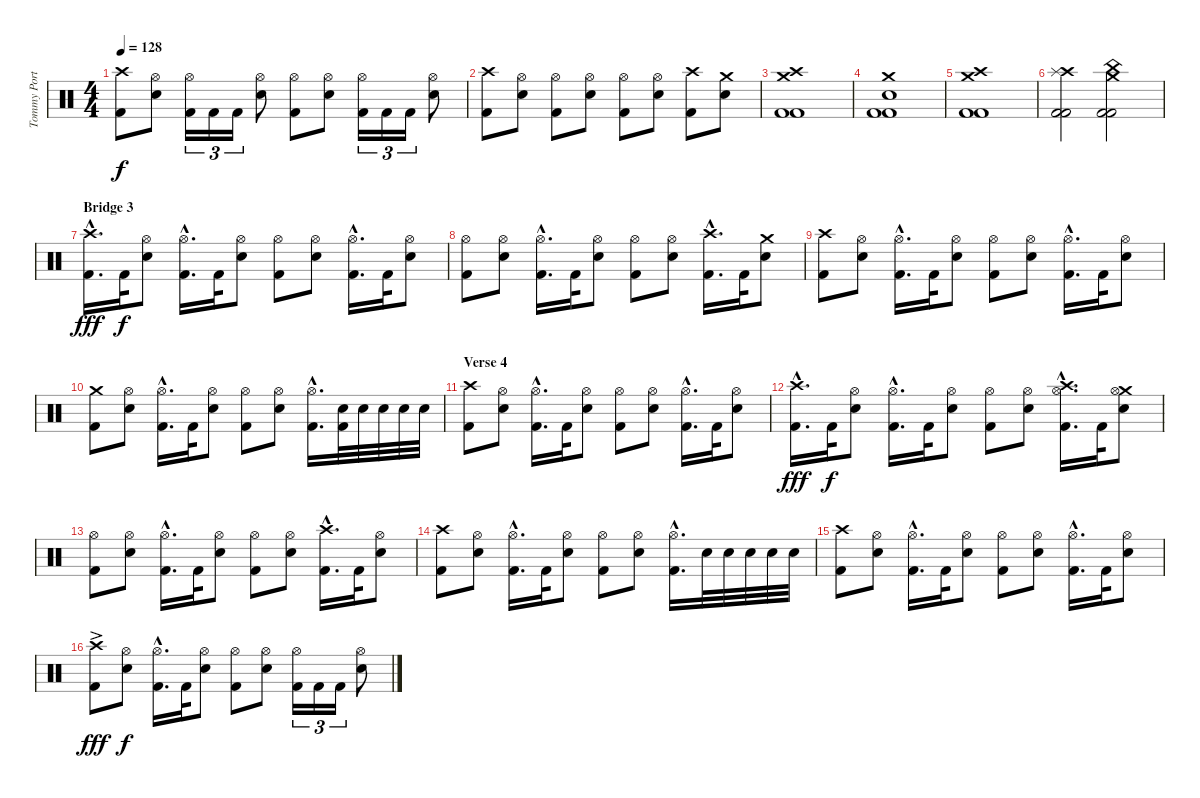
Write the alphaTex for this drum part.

\track ("Tommy Portimo" "Tommy Port") {instrument percussion}
\staff {score}
\articulation defaults
\ts (4 4)
\tempo 128
\clef neutral
\ks c
("Crash high (hit)" "Kick (hit) 2").8{dy f} ("Hi-Hat (open)" "Snare (hit) 2").8 ("Hi-Hat (open)" "Kick (hit) 2").16{tu (3 2)} "Kick (hit) 2".16{tu (3 2)} "Kick (hit) 2".16{tu (3 2)} ("Hi-Hat (open)" "Snare (hit) 2").8 ("Hi-Hat (open)" "Kick (hit) 2").8 ("Hi-Hat (open)" "Snare (hit) 2").8 ("Hi-Hat (open)" "Kick (hit) 2").16{tu (3 2)} "Kick (hit) 2".16{tu (3 2)} "Kick (hit) 2".16{tu (3 2)} ("Hi-Hat (open)" "Snare (hit) 2").8 |
("Crash high (hit)" "Kick (hit) 2").8 ("Hi-Hat (open)" "Snare (hit) 2").8 ("Hi-Hat (open)" "Kick (hit) 2").8 ("Hi-Hat (open)" "Snare (hit) 2").8 ("Hi-Hat (open)" "Kick (hit) 2").8 ("Hi-Hat (open)" "Snare (hit) 2").8 ("Crash high (hit)" "Kick (hit) 2").8 ("Crash medium (hit)" "Snare (hit) 2").8 |
("Crash high (hit)" "Crash medium (hit)" "Kick (hit) 2" "Kick (hit) 2").1 |
("Crash medium (hit)" "Snare (hit) 2" "Kick (hit) 2" "Kick (hit) 2").1 |
("Crash medium (hit)" "Crash high (hit)" "Kick (hit) 2" "Kick (hit) 2").1 |
("Crash high (hit)" "Splash (hit)" "Kick (hit) 2" "Kick (hit) 2").2 ("Crash medium (hit)" "China (hit)" "Kick (hit) 2" "Kick (hit) 2").2 |
\section ("" "Bridge 3")
("Crash high (hit)"{hac} "Kick (hit) 2"{hac}).16{d dy fff} "Kick (hit) 2".32{dy f} ("Hi-Hat (open)" "Snare (hit) 2").8 ("Hi-Hat (open)"{hac} "Kick (hit) 2"{hac}).16{d} "Kick (hit) 2".32 ("Hi-Hat (open)" "Snare (hit) 2").8 ("Hi-Hat (open)" "Kick (hit) 2").8 ("Hi-Hat (open)" "Snare (hit) 2").8 ("Hi-Hat (open)"{hac} "Kick (hit) 2"{hac}).16{d} "Kick (hit) 2".32 ("Hi-Hat (open)" "Snare (hit) 2").8 |
("Hi-Hat (open)" "Kick (hit) 2").8 ("Hi-Hat (open)" "Snare (hit) 2").8 ("Hi-Hat (open)"{hac} "Kick (hit) 2"{hac}).16{d} "Kick (hit) 2".32 ("Hi-Hat (open)" "Snare (hit) 2").8 ("Hi-Hat (open)" "Kick (hit) 2").8 ("Hi-Hat (open)" "Snare (hit) 2").8 ("Crash high (hit)"{hac} "Kick (hit) 2"{hac}).16{d} "Kick (hit) 2".32 ("Crash medium (hit)" "Snare (hit) 2").8 |
("Crash high (hit)" "Kick (hit) 2").8 ("Hi-Hat (open)" "Snare (hit) 2").8 ("Hi-Hat (open)"{hac} "Kick (hit) 2"{hac}).16{d} "Kick (hit) 2".32 ("Hi-Hat (open)" "Snare (hit) 2").8 ("Hi-Hat (open)" "Kick (hit) 2").8 ("Hi-Hat (open)" "Snare (hit) 2").8 ("Hi-Hat (open)"{hac} "Kick (hit) 2"{hac}).16{d} "Kick (hit) 2".32 ("Hi-Hat (open)" "Snare (hit) 2").8 |
("Crash medium (hit)" "Kick (hit) 2").8 ("Hi-Hat (open)" "Snare (hit) 2").8 ("Hi-Hat (open)"{hac} "Kick (hit) 2"{hac}).16{d} "Kick (hit) 2".32 ("Hi-Hat (open)" "Snare (hit) 2").8 ("Hi-Hat (open)" "Kick (hit) 2").8 ("Hi-Hat (open)" "Snare (hit) 2").8 ("Hi-Hat (open)"{hac} "Kick (hit) 2"{hac}).16{d} ("Snare (hit) 2" "Kick (hit) 2").32 "Snare (hit) 2".32 "Snare (hit) 2".32 "Snare (hit) 2".32 "Snare (hit) 2".32 |
\section ("" "Verse 4")
("Crash high (hit)" "Kick (hit) 2").8 ("Hi-Hat (open)" "Snare (hit) 2").8 ("Hi-Hat (open)"{hac} "Kick (hit) 2"{hac}).16{d} "Kick (hit) 2".32 ("Hi-Hat (open)" "Snare (hit) 2").8 ("Hi-Hat (open)" "Kick (hit) 2").8 ("Hi-Hat (open)" "Snare (hit) 2").8 ("Hi-Hat (open)"{hac} "Kick (hit) 2"{hac}).16{d} "Kick (hit) 2".32 ("Hi-Hat (open)" "Snare (hit) 2").8 |
("Crash high (hit)"{hac} "Kick (hit) 2"{hac}).16{d dy fff} "Kick (hit) 2".32{dy f} ("Hi-Hat (open)" "Snare (hit) 2").8 ("Hi-Hat (open)"{hac} "Kick (hit) 2"{hac}).16{d} "Kick (hit) 2".32 ("Hi-Hat (open)" "Snare (hit) 2").8 ("Hi-Hat (open)" "Kick (hit) 2").8 ("Hi-Hat (open)" "Snare (hit) 2").8 ("Crash high (hit)"{hac} "Hi-Hat (open)"{hac} "Kick (hit) 2"{hac}).16{d} "Kick (hit) 2".32 ("Crash medium (hit)" "Hi-Hat (open)" "Snare (hit) 2").8 |
("Hi-Hat (open)" "Kick (hit) 2").8 ("Hi-Hat (open)" "Snare (hit) 2").8 ("Hi-Hat (open)"{hac} "Kick (hit) 2"{hac}).16{d} "Kick (hit) 2".32 ("Hi-Hat (open)" "Snare (hit) 2").8 ("Hi-Hat (open)" "Kick (hit) 2").8 ("Hi-Hat (open)" "Snare (hit) 2").8 ("Crash high (hit)"{hac} "Kick (hit) 2"{hac}).16{d} "Kick (hit) 2".32 ("Hi-Hat (open)" "Snare (hit) 2").8 |
("Crash high (hit)" "Kick (hit) 2").8 ("Hi-Hat (open)" "Snare (hit) 2").8 ("Hi-Hat (open)"{hac} "Kick (hit) 2"{hac}).16{d} "Kick (hit) 2".32 ("Hi-Hat (open)" "Snare (hit) 2").8 ("Hi-Hat (open)" "Kick (hit) 2").8 ("Hi-Hat (open)" "Snare (hit) 2").8 ("Hi-Hat (open)"{hac} "Kick (hit) 2"{hac}).16{d} "Snare (hit) 2".32 "Snare (hit) 2".32 "Snare (hit) 2".32 "Snare (hit) 2".32 "Snare (hit) 2".32 |
("Crash high (hit)" "Kick (hit) 2").8 ("Hi-Hat (open)" "Snare (hit) 2").8 ("Hi-Hat (open)"{hac} "Kick (hit) 2"{hac}).16{d} "Kick (hit) 2".32 ("Hi-Hat (open)" "Snare (hit) 2").8 ("Hi-Hat (open)" "Kick (hit) 2").8 ("Hi-Hat (open)" "Snare (hit) 2").8 ("Hi-Hat (open)"{hac} "Kick (hit) 2"{hac}).16{d} "Kick (hit) 2".32 ("Hi-Hat (open)" "Snare (hit) 2").8 |
("Crash high (hit)"{ac} "Kick (hit) 2").8{dy fff} ("Hi-Hat (open)" "Snare (hit) 2").8{dy f} ("Hi-Hat (open)"{hac} "Kick (hit) 2"{hac}).16{d} "Kick (hit) 2".32 ("Hi-Hat (open)" "Snare (hit) 2").8 ("Hi-Hat (open)" "Kick (hit) 2").8 ("Hi-Hat (open)" "Snare (hit) 2").8 ("Hi-Hat (open)" "Kick (hit) 2").16{tu (3 2)} "Kick (hit) 2".16{tu (3 2)} "Kick (hit) 2".16{tu (3 2)} ("Hi-Hat (open)" "Snare (hit) 2").8
